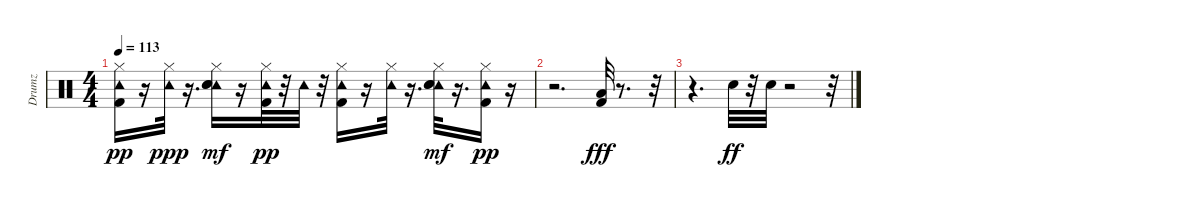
\track ("Drumz" "Drumz") {instrument percussion}
\staff {score}
\articulation defaults
\ts (4 4)
\tempo 113
\clef neutral
\ks c
("Hi-Hat (closed)" "Kick (hit) 2" "Tambourine (hit)").16{dy pp} r.16 ("Hi-Hat (closed)" "Tambourine (hit)").32{dy ppp} r.16{d} ("Tambourine (hit)" "Electric Snare (hit)" "Hi-Hat (closed)" "Hand Clap (hit)").16{dy mf} r.16 ("Kick (hit) 2" "Hi-Hat (closed)" "Tambourine (hit)").32{dy pp} r.32 "Tambourine (hit)".32 r.32 ("Kick (hit) 2" "Hi-Hat (closed)" "Tambourine (hit)").16 r.16 ("Hi-Hat (closed)" "Tambourine (hit)").32 r.16{d} ("Tambourine (hit)" "Electric Snare (hit)" "Hi-Hat (closed)" "Hand Clap (hit)").32{dy mf} r.16{d} ("Hi-Hat (closed)" "Kick (hit) 2" "Tambourine (hit)").16{dy pp} r.16 |
r.2{d} ("Low Floor Tom (hit)" "Kick (hit) 2").32{dy fff volume 12} r.8{d} r.32 |
r.4{d} "Electric Snare (hit)".32{dy ff} r.32 "Electric Snare (hit)".32 r.2 r.32
